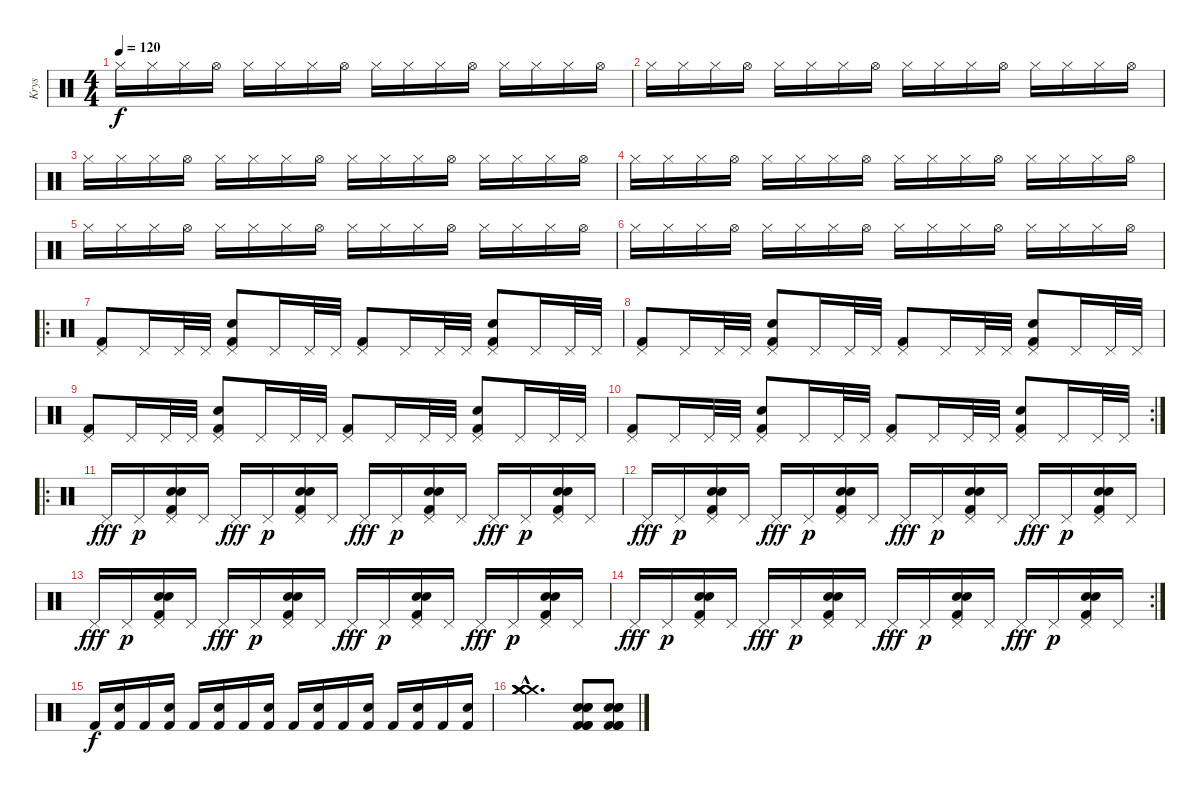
\track ("Krys" "Krys") {instrument percussion}
\staff {score}
\articulation defaults
\ts (4 4)
\tempo 120
\clef neutral
\ks c "Hi-Hat (closed)".16{dy f} "Hi-Hat (closed)".16 "Hi-Hat (closed)".16 "Hi-Hat (open)".16 "Hi-Hat (closed)".16 "Hi-Hat (closed)".16 "Hi-Hat (closed)".16 "Hi-Hat (open)".16 "Hi-Hat (closed)".16 "Hi-Hat (closed)".16 "Hi-Hat (closed)".16 "Hi-Hat (open)".16 "Hi-Hat (closed)".16 "Hi-Hat (closed)".16 "Hi-Hat (closed)".16 "Hi-Hat (open)".16
|
"Hi-Hat (closed)".16 "Hi-Hat (closed)".16 "Hi-Hat (closed)".16 "Hi-Hat (open)".16 "Hi-Hat (closed)".16 "Hi-Hat (closed)".16 "Hi-Hat (closed)".16 "Hi-Hat (open)".16 "Hi-Hat (closed)".16 "Hi-Hat (closed)".16 "Hi-Hat (closed)".16 "Hi-Hat (open)".16 "Hi-Hat (closed)".16 "Hi-Hat (closed)".16 "Hi-Hat (closed)".16 "Hi-Hat (open)".16 |
"Hi-Hat (closed)".16 "Hi-Hat (closed)".16 "Hi-Hat (closed)".16 "Hi-Hat (open)".16 "Hi-Hat (closed)".16 "Hi-Hat (closed)".16 "Hi-Hat (closed)".16 "Hi-Hat (open)".16 "Hi-Hat (closed)".16 "Hi-Hat (closed)".16 "Hi-Hat (closed)".16 "Hi-Hat (open)".16 "Hi-Hat (closed)".16 "Hi-Hat (closed)".16 "Hi-Hat (closed)".16 "Hi-Hat (open)".16 |
"Hi-Hat (closed)".16 "Hi-Hat (closed)".16 "Hi-Hat (closed)".16 "Hi-Hat (open)".16 "Hi-Hat (closed)".16 "Hi-Hat (closed)".16 "Hi-Hat (closed)".16 "Hi-Hat (open)".16 "Hi-Hat (closed)".16 "Hi-Hat (closed)".16 "Hi-Hat (closed)".16 "Hi-Hat (open)".16 "Hi-Hat (closed)".16 "Hi-Hat (closed)".16 "Hi-Hat (closed)".16 "Hi-Hat (open)".16 |
"Hi-Hat (closed)".16 "Hi-Hat (closed)".16 "Hi-Hat (closed)".16 "Hi-Hat (open)".16 "Hi-Hat (closed)".16 "Hi-Hat (closed)".16 "Hi-Hat (closed)".16 "Hi-Hat (open)".16 "Hi-Hat (closed)".16 "Hi-Hat (closed)".16 "Hi-Hat (closed)".16 "Hi-Hat (open)".16 "Hi-Hat (closed)".16 "Hi-Hat (closed)".16 "Hi-Hat (closed)".16 "Hi-Hat (open)".16 |
"Hi-Hat (closed)".16 "Hi-Hat (closed)".16 "Hi-Hat (closed)".16 "Hi-Hat (open)".16 "Hi-Hat (closed)".16 "Hi-Hat (closed)".16 "Hi-Hat (closed)".16 "Hi-Hat (open)".16 "Hi-Hat (closed)".16 "Hi-Hat (closed)".16 "Hi-Hat (closed)".16 "Hi-Hat (open)".16 "Hi-Hat (closed)".16 "Hi-Hat (closed)".16 "Hi-Hat (closed)".16 "Hi-Hat (open)".16 |
\ro
("Pedal Hi-Hat (hit)" "Kick (hit) 2").8 "Pedal Hi-Hat (hit)".16 "Pedal Hi-Hat (hit)".32 "Pedal Hi-Hat (hit)".32 ("Pedal Hi-Hat (hit)" "Snare (hit) 2" "Kick (hit) 2").8 "Pedal Hi-Hat (hit)".16 "Pedal Hi-Hat (hit)".32 "Pedal Hi-Hat (hit)".32 ("Pedal Hi-Hat (hit)" "Kick (hit) 2").8 "Pedal Hi-Hat (hit)".16 "Pedal Hi-Hat (hit)".32 "Pedal Hi-Hat (hit)".32 ("Pedal Hi-Hat (hit)" "Snare (hit) 2" "Kick (hit) 2").8 "Pedal Hi-Hat (hit)".16 "Pedal Hi-Hat (hit)".32 "Pedal Hi-Hat (hit)".32 |
("Pedal Hi-Hat (hit)" "Kick (hit) 2").8 "Pedal Hi-Hat (hit)".16 "Pedal Hi-Hat (hit)".32 "Pedal Hi-Hat (hit)".32 ("Pedal Hi-Hat (hit)" "Snare (hit) 2" "Kick (hit) 2").8 "Pedal Hi-Hat (hit)".16 "Pedal Hi-Hat (hit)".32 "Pedal Hi-Hat (hit)".32 ("Pedal Hi-Hat (hit)" "Kick (hit) 2").8 "Pedal Hi-Hat (hit)".16 "Pedal Hi-Hat (hit)".32 "Pedal Hi-Hat (hit)".32 ("Pedal Hi-Hat (hit)" "Snare (hit) 2" "Kick (hit) 2").8 "Pedal Hi-Hat (hit)".16 "Pedal Hi-Hat (hit)".32 "Pedal Hi-Hat (hit)".32 |
("Pedal Hi-Hat (hit)" "Kick (hit) 2").8 "Pedal Hi-Hat (hit)".16 "Pedal Hi-Hat (hit)".32 "Pedal Hi-Hat (hit)".32 ("Pedal Hi-Hat (hit)" "Snare (hit) 2" "Kick (hit) 2").8 "Pedal Hi-Hat (hit)".16 "Pedal Hi-Hat (hit)".32 "Pedal Hi-Hat (hit)".32 ("Pedal Hi-Hat (hit)" "Kick (hit) 2").8 "Pedal Hi-Hat (hit)".16 "Pedal Hi-Hat (hit)".32 "Pedal Hi-Hat (hit)".32 ("Pedal Hi-Hat (hit)" "Snare (hit) 2" "Kick (hit) 2").8 "Pedal Hi-Hat (hit)".16 "Pedal Hi-Hat (hit)".32 "Pedal Hi-Hat (hit)".32 |
\rc 2
("Pedal Hi-Hat (hit)" "Kick (hit) 2").8 "Pedal Hi-Hat (hit)".16 "Pedal Hi-Hat (hit)".32 "Pedal Hi-Hat (hit)".32 ("Pedal Hi-Hat (hit)" "Snare (hit) 2" "Kick (hit) 2").8 "Pedal Hi-Hat (hit)".16 "Pedal Hi-Hat (hit)".32 "Pedal Hi-Hat (hit)".32 ("Pedal Hi-Hat (hit)" "Kick (hit) 2").8 "Pedal Hi-Hat (hit)".16 "Pedal Hi-Hat (hit)".32 "Pedal Hi-Hat (hit)".32 ("Pedal Hi-Hat (hit)" "Snare (hit) 2" "Kick (hit) 2").8 "Pedal Hi-Hat (hit)".16 "Pedal Hi-Hat (hit)".32 "Pedal Hi-Hat (hit)".32 |
\ro "Pedal Hi-Hat (hit)".16{dy fff} "Pedal Hi-Hat (hit)".16{dy p}
("Pedal Hi-Hat (hit)" "Kick (hit) 2" "Snare (hit) 2" "Snare (hit) 2").16 "Pedal Hi-Hat (hit)".16 "Pedal Hi-Hat (hit)".16{dy fff} "Pedal Hi-Hat (hit)".16{dy p} ("Pedal Hi-Hat (hit)" "Kick (hit) 2" "Snare (hit) 2" "Snare (hit) 2").16 "Pedal Hi-Hat (hit)".16 "Pedal Hi-Hat (hit)".16{dy fff} "Pedal Hi-Hat (hit)".16{dy p} ("Pedal Hi-Hat (hit)" "Kick (hit) 2" "Snare (hit) 2" "Snare (hit) 2").16 "Pedal Hi-Hat (hit)".16 "Pedal Hi-Hat (hit)".16{dy fff} "Pedal Hi-Hat (hit)".16{dy p} ("Pedal Hi-Hat (hit)" "Kick (hit) 2" "Snare (hit) 2" "Snare (hit) 2").16 "Pedal Hi-Hat (hit)".16 |
"Pedal Hi-Hat (hit)".16{dy fff} "Pedal Hi-Hat (hit)".16{dy p} ("Pedal Hi-Hat (hit)" "Kick (hit) 2" "Snare (hit) 2" "Snare (hit) 2").16 "Pedal Hi-Hat (hit)".16 "Pedal Hi-Hat (hit)".16{dy fff} "Pedal Hi-Hat (hit)".16{dy p} ("Pedal Hi-Hat (hit)" "Kick (hit) 2" "Snare (hit) 2" "Snare (hit) 2").16 "Pedal Hi-Hat (hit)".16 "Pedal Hi-Hat (hit)".16{dy fff} "Pedal Hi-Hat (hit)".16{dy p} ("Pedal Hi-Hat (hit)" "Kick (hit) 2" "Snare (hit) 2" "Snare (hit) 2").16 "Pedal Hi-Hat (hit)".16 "Pedal Hi-Hat (hit)".16{dy fff} "Pedal Hi-Hat (hit)".16{dy p} ("Pedal Hi-Hat (hit)" "Kick (hit) 2" "Snare (hit) 2" "Snare (hit) 2").16 "Pedal Hi-Hat (hit)".16 |
"Pedal Hi-Hat (hit)".16{dy fff} "Pedal Hi-Hat (hit)".16{dy p} ("Pedal Hi-Hat (hit)" "Kick (hit) 2" "Snare (hit) 2" "Snare (hit) 2").16 "Pedal Hi-Hat (hit)".16 "Pedal Hi-Hat (hit)".16{dy fff} "Pedal Hi-Hat (hit)".16{dy p} ("Pedal Hi-Hat (hit)" "Kick (hit) 2" "Snare (hit) 2" "Snare (hit) 2").16 "Pedal Hi-Hat (hit)".16 "Pedal Hi-Hat (hit)".16{dy fff} "Pedal Hi-Hat (hit)".16{dy p} ("Pedal Hi-Hat (hit)" "Kick (hit) 2" "Snare (hit) 2" "Snare (hit) 2").16 "Pedal Hi-Hat (hit)".16 "Pedal Hi-Hat (hit)".16{dy fff} "Pedal Hi-Hat (hit)".16{dy p} ("Pedal Hi-Hat (hit)" "Kick (hit) 2" "Snare (hit) 2" "Snare (hit) 2").16 "Pedal Hi-Hat (hit)".16 |
\rc 2 "Pedal Hi-Hat (hit)".16{dy fff} "Pedal Hi-Hat (hit)".16{dy p}
("Pedal Hi-Hat (hit)" "Kick (hit) 2" "Snare (hit) 2" "Snare (hit) 2").16 "Pedal Hi-Hat (hit)".16 "Pedal Hi-Hat (hit)".16{dy fff} "Pedal Hi-Hat (hit)".16{dy p} ("Pedal Hi-Hat (hit)" "Kick (hit) 2" "Snare (hit) 2" "Snare (hit) 2").16 "Pedal Hi-Hat (hit)".16 "Pedal Hi-Hat (hit)".16{dy fff} "Pedal Hi-Hat (hit)".16{dy p} ("Pedal Hi-Hat (hit)" "Kick (hit) 2" "Snare (hit) 2" "Snare (hit) 2").16 "Pedal Hi-Hat (hit)".16 "Pedal Hi-Hat (hit)".16{dy fff} "Pedal Hi-Hat (hit)".16{dy p} ("Pedal Hi-Hat (hit)" "Kick (hit) 2" "Snare (hit) 2" "Snare (hit) 2").16 "Pedal Hi-Hat (hit)".16 |
"Kick (hit) 2".16{dy f} ("Snare (hit) 2" "Kick (hit) 2").16 "Kick (hit) 2".16 ("Snare (hit) 2" "Kick (hit) 2").16 "Kick (hit) 2".16 ("Snare (hit) 2" "Kick (hit) 2").16 "Kick (hit) 2".16 ("Snare (hit) 2" "Kick (hit) 2").16 "Kick (hit) 2".16 ("Snare (hit) 2" "Kick (hit) 2").16 "Kick (hit) 2".16 ("Snare (hit) 2" "Kick (hit) 2").16 "Kick (hit) 2".16 ("Snare (hit) 2" "Kick (hit) 2").16 "Kick (hit) 2".16 ("Snare (hit) 2" "Kick (hit) 2").16 |
("Crash medium (hit)"{hac} "Crash medium (hit)"{hac} "Crash medium (hit)"{hac} "Crash medium (hit)"{hac} "Crash medium (hit)"{hac}).2{d} ("Snare (hit) 2" "Kick (hit) 2" "Snare (hit) 2" "Kick (hit) 2" "Snare (hit) 2" "Kick (hit) 2").8 ("Snare (hit) 2" "Kick (hit) 2" "Snare (hit) 2" "Kick (hit) 2" "Snare (hit) 2" "Kick (hit) 2").8
